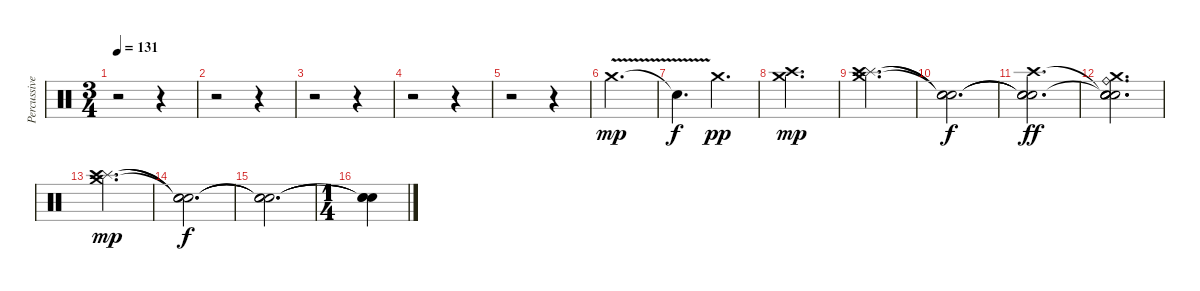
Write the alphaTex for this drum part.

\track ("Percussive Subtleties" "Percussive") {instrument percussion bank 1}
\staff {score}
\articulation defaults
\ts (3 4)
\tempo 131
\clef neutral
\ks c
r.2{dy mp} r.4 |
r.2 r.4 |
r.2 r.4 |
r.2 r.4 |
r.2 r.4 |
"Crash medium (hit)"{v}.2{d} |
"Snare (hit)"{t}.4{d dy f} "Crash medium (hit)".4{d dy pp volume 3} |
("Crash medium (hit)"{tr (57 16)} "Crash high (hit)"{tr (49 32)}).2{d dy mp} |
("Splash (hit)" "Crash medium (hit)" "Crash high (hit)").2{d} |
("Snare (hit)"{t} "Snare (hit)"{t} "Snare (hit)"{t}).2{d dy f} |
("Snare (hit)"{t} "Snare (hit)"{t} "Snare (hit)"{t} "Crash high (hit)").2{d dy ff} |
("Ride (bell)" "Crash medium (hit)" "Snare (hit)"{t} "Snare (hit)"{t} "Snare (hit)" "Snare (hit)").2{d} |
("Splash (hit)" "Crash medium (hit)" "Crash high (hit)").2{d dy mp} |
("Snare (hit)"{t} "Snare (hit)"{t} "Snare (hit)"{t}).2{d dy f} |
("Snare (hit)"{t} "Snare (hit)"{t} "Snare (hit)"{t}).2{d} |
\ts (1 4)
("Snare (hit)"{t} "Snare (hit)"{t} "Snare (hit)"{t}).4
